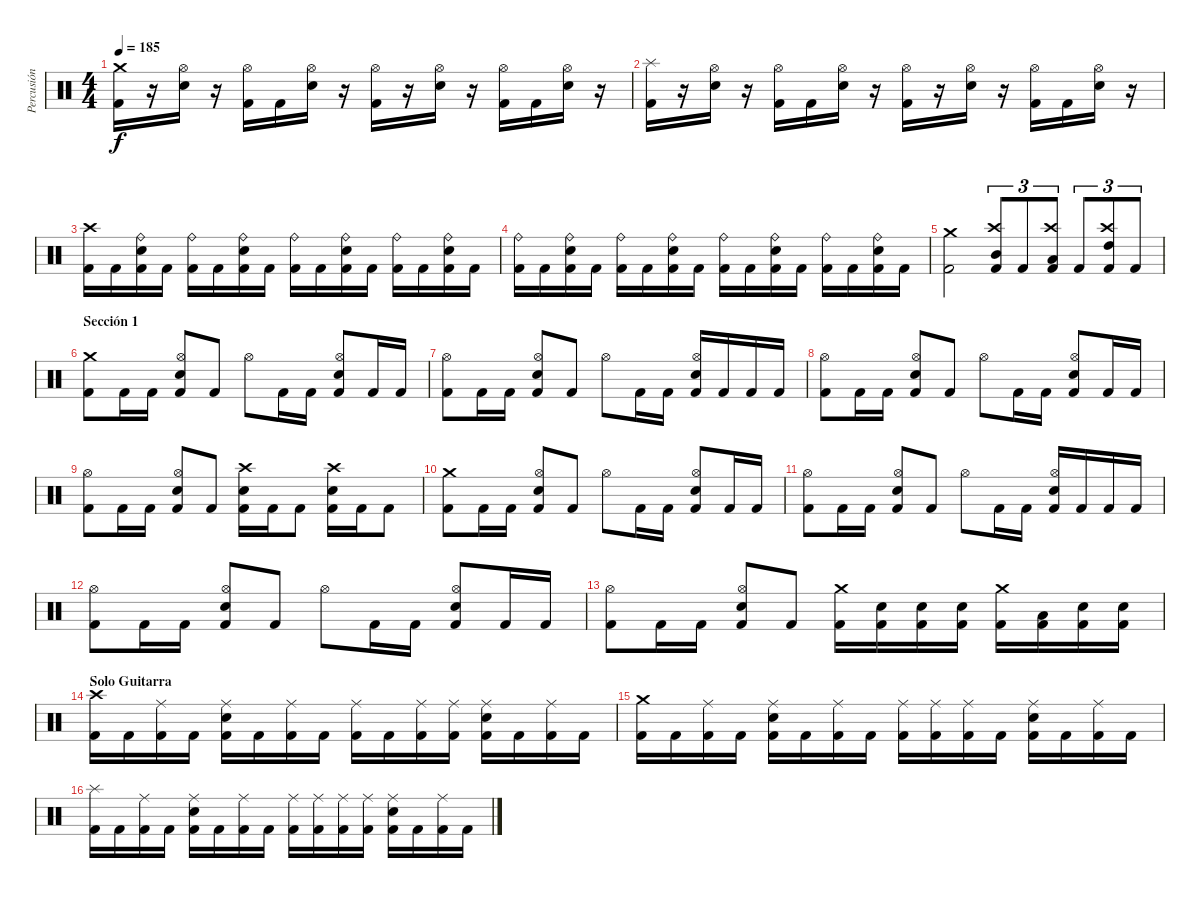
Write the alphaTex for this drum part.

\track ("Percusión" "Percusión") {instrument percussion}
\staff {score}
\articulation defaults
\ts (4 4)
\tempo 185
\clef neutral
\ks c
("Crash medium (hit)" "Kick (hit) 2").16{dy f} r.16 ("Hi-Hat (open)" "Snare (hit) 2").16 r.16 ("Hi-Hat (open)" "Kick (hit) 2").16 "Kick (hit) 2".16 ("Hi-Hat (open)" "Snare (hit) 2").16 r.16 ("Hi-Hat (open)" "Kick (hit) 2").16 r.16 ("Hi-Hat (open)" "Snare (hit) 2").16 r.16 ("Hi-Hat (open)" "Kick (hit) 2").16 "Kick (hit) 2".16 ("Hi-Hat (open)" "Snare (hit) 2").16 r.16 |
("Splash (hit)" "Kick (hit) 2").16 r.16 ("Hi-Hat (open)" "Snare (hit) 2").16 r.16 ("Hi-Hat (open)" "Kick (hit) 2").16 "Kick (hit) 2".16 ("Hi-Hat (open)" "Snare (hit) 2").16 r.16 ("Hi-Hat (open)" "Kick (hit) 2").16 r.16 ("Hi-Hat (open)" "Snare (hit) 2").16 r.16 ("Hi-Hat (open)" "Kick (hit) 2").16 "Kick (hit) 2".16 ("Hi-Hat (open)" "Snare (hit) 2").16 r.16 |
("Crash high (hit)" "Kick (hit) 2").16 "Kick (hit) 2".16 ("Ride (bell)" "Snare (hit) 2" "Kick (hit) 2").16 "Kick (hit) 2".16 ("Ride (bell)" "Kick (hit) 2").16 "Kick (hit) 2".16 ("Ride (bell)" "Snare (hit) 2" "Kick (hit) 2").16 "Kick (hit) 2".16 ("Ride (bell)" "Kick (hit) 2").16 "Kick (hit) 2".16 ("Ride (bell)" "Snare (hit) 2" "Kick (hit) 2").16 "Kick (hit) 2".16 ("Ride (bell)" "Kick (hit) 2").16 "Kick (hit) 2".16 ("Ride (bell)" "Snare (hit) 2" "Kick (hit) 2").16 "Kick (hit) 2".16 |
("Ride (bell)" "Kick (hit) 2").16 "Kick (hit) 2".16 ("Ride (bell)" "Snare (hit) 2" "Kick (hit) 2").16 "Kick (hit) 2".16 ("Ride (bell)" "Kick (hit) 2").16 "Kick (hit) 2".16 ("Ride (bell)" "Snare (hit) 2" "Kick (hit) 2").16 "Kick (hit) 2".16 ("Ride (bell)" "Kick (hit) 2").16 "Kick (hit) 2".16 ("Ride (bell)" "Snare (hit) 2" "Kick (hit) 2").16 "Kick (hit) 2".16 ("Ride (bell)" "Kick (hit) 2").16 "Kick (hit) 2".16 ("Ride (bell)" "Snare (hit) 2" "Kick (hit) 2").16 "Kick (hit) 2".16 |
\section ("" "")
("Crash medium (hit)" "Kick (hit) 2").2 ("Crash high (hit)" "Mid Tom (hit)" "Kick (hit) 2").8{tu (3 2)} "Kick (hit) 2".8{tu (3 2)} ("Crash high (hit)" "Low Tom (hit)" "Kick (hit) 2").8{tu (3 2)} "Kick (hit) 2".8{tu (3 2)} ("Crash high (hit)" "High Tom (hit)" "Kick (hit) 2").8{tu (3 2)} "Kick (hit) 2".8{tu (3 2)} |
\section ("" "Sección 1")
("Crash medium (hit)" "Kick (hit) 2").8 "Kick (hit) 2".16 "Kick (hit) 2".16 ("Hi-Hat (open)" "Snare (hit) 2" "Kick (hit) 2").8 "Kick (hit) 2".8 "Hi-Hat (open)".8 "Kick (hit) 2".16 "Kick (hit) 2".16 ("Hi-Hat (open)" "Snare (hit) 2" "Kick (hit) 2").8 "Kick (hit) 2".16 "Kick (hit) 2".16 |
("Hi-Hat (open)" "Kick (hit) 2").8 "Kick (hit) 2".16 "Kick (hit) 2".16 ("Hi-Hat (open)" "Snare (hit) 2" "Kick (hit) 2").8 "Kick (hit) 2".8 "Hi-Hat (open)".8 "Kick (hit) 2".16 "Kick (hit) 2".16 ("Hi-Hat (open)" "Snare (hit) 2" "Kick (hit) 2").16 "Kick (hit) 2".16 "Kick (hit) 2".16 "Kick (hit) 2".16 |
("Hi-Hat (open)" "Kick (hit) 2").8 "Kick (hit) 2".16 "Kick (hit) 2".16 ("Hi-Hat (open)" "Snare (hit) 2" "Kick (hit) 2").8 "Kick (hit) 2".8 "Hi-Hat (open)".8 "Kick (hit) 2".16 "Kick (hit) 2".16 ("Hi-Hat (open)" "Snare (hit) 2" "Kick (hit) 2").8 "Kick (hit) 2".16 "Kick (hit) 2".16 |
("Hi-Hat (open)" "Kick (hit) 2").8 "Kick (hit) 2".16 "Kick (hit) 2".16 ("Hi-Hat (open)" "Snare (hit) 2" "Kick (hit) 2").8 "Kick (hit) 2".8 ("Crash high (hit)" "Snare (hit) 2" "Kick (hit) 2").16 "Kick (hit) 2".16 "Kick (hit) 2".8 ("Crash high (hit)" "Snare (hit) 2" "Kick (hit) 2").16 "Kick (hit) 2".16 "Kick (hit) 2".8 |
("Crash medium (hit)" "Kick (hit) 2").8 "Kick (hit) 2".16 "Kick (hit) 2".16 ("Hi-Hat (open)" "Snare (hit) 2" "Kick (hit) 2").8 "Kick (hit) 2".8 "Hi-Hat (open)".8 "Kick (hit) 2".16 "Kick (hit) 2".16 ("Hi-Hat (open)" "Snare (hit) 2" "Kick (hit) 2").8 "Kick (hit) 2".16 "Kick (hit) 2".16 |
("Hi-Hat (open)" "Kick (hit) 2").8 "Kick (hit) 2".16 "Kick (hit) 2".16 ("Hi-Hat (open)" "Snare (hit) 2" "Kick (hit) 2").8 "Kick (hit) 2".8 "Hi-Hat (open)".8 "Kick (hit) 2".16 "Kick (hit) 2".16 ("Hi-Hat (open)" "Snare (hit) 2" "Kick (hit) 2").16 "Kick (hit) 2".16 "Kick (hit) 2".16 "Kick (hit) 2".16 |
("Hi-Hat (open)" "Kick (hit) 2").8 "Kick (hit) 2".16 "Kick (hit) 2".16 ("Hi-Hat (open)" "Snare (hit) 2" "Kick (hit) 2").8 "Kick (hit) 2".8 "Hi-Hat (open)".8 "Kick (hit) 2".16 "Kick (hit) 2".16 ("Hi-Hat (open)" "Snare (hit) 2" "Kick (hit) 2").8 "Kick (hit) 2".16 "Kick (hit) 2".16 |
("Hi-Hat (open)" "Kick (hit) 2").8 "Kick (hit) 2".16 "Kick (hit) 2".16 ("Hi-Hat (open)" "Snare (hit) 2" "Kick (hit) 2").8 "Kick (hit) 2".8 ("Crash medium (hit)" "Kick (hit) 2").16 ("Snare (hit) 2" "Kick (hit) 2").16 ("Snare (hit) 2" "Kick (hit) 2").16 ("Snare (hit) 2" "Kick (hit) 2").16 ("Crash medium (hit)" "Kick (hit) 2").16 ("Low Tom (hit)" "Kick (hit) 2").16 ("Snare (hit) 2" "Kick (hit) 2").16 ("Snare (hit) 2" "Kick (hit) 2").16 |
\section ("" "Solo Guitarra")
("Crash high (hit)" "Kick (hit) 2").16 "Kick (hit) 2".16 ("Ride (middle)" "Kick (hit) 2").16 "Kick (hit) 2".16 ("Ride (middle)" "Snare (hit) 2" "Kick (hit) 2").16 "Kick (hit) 2".16 ("Ride (middle)" "Kick (hit) 2").16 "Kick (hit) 2".16 ("Ride (middle)" "Kick (hit) 2").16 "Kick (hit) 2".16 ("Ride (middle)" "Kick (hit) 2").16 ("Ride (middle)" "Kick (hit) 2").16 ("Ride (middle)" "Snare (hit) 2" "Kick (hit) 2").16 "Kick (hit) 2".16 ("Ride (middle)" "Kick (hit) 2").16 "Kick (hit) 2".16 |
("Crash medium (hit)" "Kick (hit) 2").16 "Kick (hit) 2".16 ("Ride (middle)" "Kick (hit) 2").16 "Kick (hit) 2".16 ("Ride (middle)" "Snare (hit) 2" "Kick (hit) 2").16 "Kick (hit) 2".16 ("Ride (middle)" "Kick (hit) 2").16 "Kick (hit) 2".16 ("Ride (middle)" "Kick (hit) 2").16 ("Ride (middle)" "Kick (hit) 2").16 ("Ride (middle)" "Kick (hit) 2").16 "Kick (hit) 2".16 ("Ride (middle)" "Snare (hit) 2" "Kick (hit) 2").16 "Kick (hit) 2".16 ("Ride (middle)" "Kick (hit) 2").16 "Kick (hit) 2".16 |
("Splash (hit)" "Kick (hit) 2").16 "Kick (hit) 2".16 ("Ride (middle)" "Kick (hit) 2").16 "Kick (hit) 2".16 ("Ride (middle)" "Snare (hit) 2" "Kick (hit) 2").16 "Kick (hit) 2".16 ("Ride (middle)" "Kick (hit) 2").16 "Kick (hit) 2".16 ("Ride (middle)" "Kick (hit) 2").16 ("Ride (middle)" "Kick (hit) 2").16 ("Ride (middle)" "Kick (hit) 2").16 ("Ride (middle)" "Kick (hit) 2").16 ("Ride (middle)" "Snare (hit) 2" "Kick (hit) 2").16 "Kick (hit) 2".16 ("Ride (middle)" "Kick (hit) 2").16 "Kick (hit) 2".16
